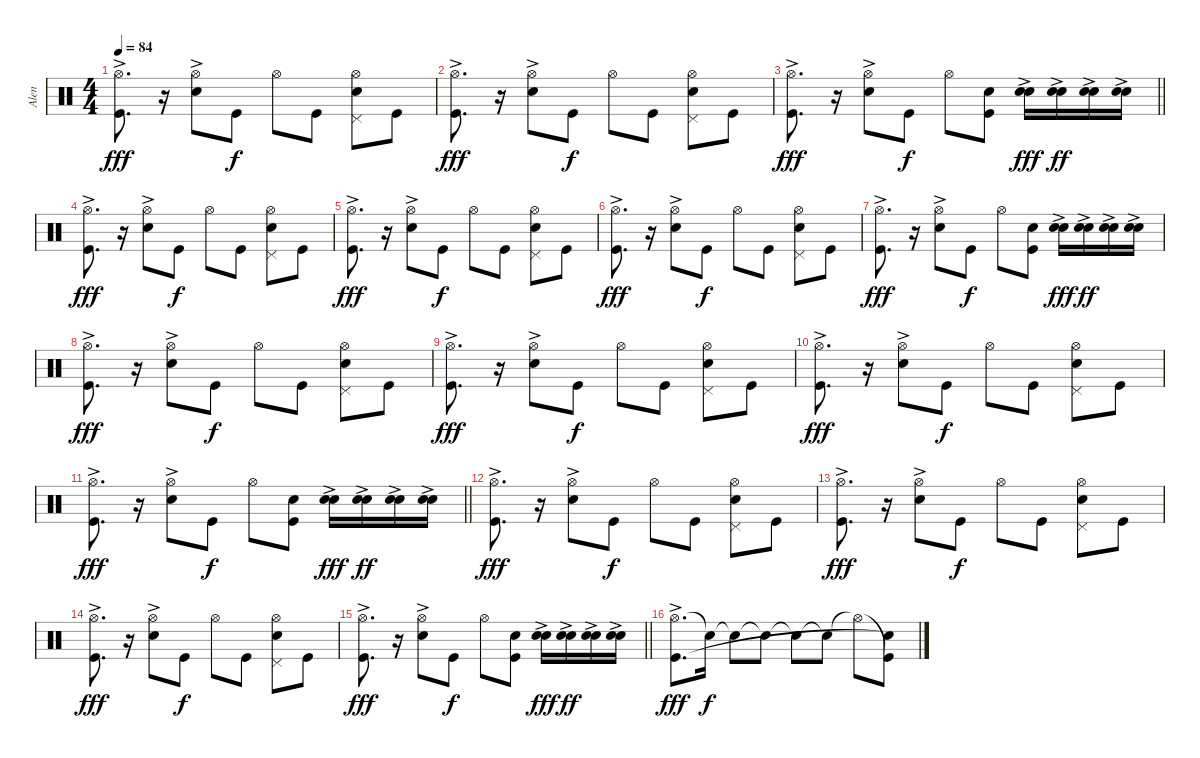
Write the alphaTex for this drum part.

\track ("Alen" "Alen") {instrument percussion}
\staff {score}
\articulation defaults
\ts (4 4)
\tempo 84
\clef neutral
\ks c
("Hi-Hat (open)"{ac} "Kick (hit)").8{d dy fff} r.16 ("Hi-Hat (open)" "Snare (hit) 2"{ac}).8 "Kick (hit)".8{dy f} "Hi-Hat (open)".8 "Kick (hit)".8 ("Pedal Hi-Hat (hit)" "Snare (hit) 2" "Hi-Hat (open)").8 "Kick (hit)".8 |
("Hi-Hat (open)"{ac} "Kick (hit)").8{d dy fff} r.16 ("Hi-Hat (open)" "Snare (hit) 2"{ac}).8 "Kick (hit)".8{dy f} "Hi-Hat (open)".8 "Kick (hit)".8 ("Pedal Hi-Hat (hit)" "Snare (hit) 2" "Hi-Hat (open)").8 "Kick (hit)".8 |
\barLineRight lightlight
("Hi-Hat (open)"{ac} "Kick (hit)").8{d dy fff} r.16 ("Hi-Hat (open)" "Snare (hit) 2"{ac}).8 "Kick (hit)".8{dy f} "Hi-Hat (open)".8 ("Electric Snare (hit)" "Kick (hit)").8 ("Snare (hit) 2"{ac} "Electric Snare (hit)"{ac}).16{dy fff} ("Snare (hit) 2"{ac} "Electric Snare (hit)").16{dy ff} ("Snare (hit) 2"{ac} "Electric Snare (hit)").16 ("Snare (hit) 2"{ac} "Electric Snare (hit)").16 |
("Hi-Hat (open)"{ac} "Kick (hit)").8{d dy fff} r.16 ("Hi-Hat (open)" "Snare (hit) 2"{ac}).8 "Kick (hit)".8{dy f} "Hi-Hat (open)".8 "Kick (hit)".8 ("Pedal Hi-Hat (hit)" "Snare (hit) 2" "Hi-Hat (open)").8 "Kick (hit)".8 |
("Hi-Hat (open)"{ac} "Kick (hit)").8{d dy fff} r.16 ("Hi-Hat (open)" "Snare (hit) 2"{ac}).8 "Kick (hit)".8{dy f} "Hi-Hat (open)".8 "Kick (hit)".8 ("Pedal Hi-Hat (hit)" "Snare (hit) 2" "Hi-Hat (open)").8 "Kick (hit)".8 |
("Hi-Hat (open)"{ac} "Kick (hit)").8{d dy fff} r.16 ("Hi-Hat (open)" "Snare (hit) 2"{ac}).8 "Kick (hit)".8{dy f} "Hi-Hat (open)".8 "Kick (hit)".8 ("Pedal Hi-Hat (hit)" "Snare (hit) 2" "Hi-Hat (open)").8 "Kick (hit)".8 |
("Hi-Hat (open)"{ac} "Kick (hit)").8{d dy fff} r.16 ("Hi-Hat (open)" "Snare (hit) 2"{ac}).8 "Kick (hit)".8{dy f} "Hi-Hat (open)".8 ("Electric Snare (hit)" "Kick (hit)").8 ("Snare (hit) 2"{ac} "Electric Snare (hit)"{ac}).16{dy fff} ("Snare (hit) 2"{ac} "Electric Snare (hit)").16{dy ff} ("Snare (hit) 2"{ac} "Electric Snare (hit)").16 ("Snare (hit) 2"{ac} "Electric Snare (hit)").16 |
("Hi-Hat (open)"{ac} "Kick (hit)").8{d dy fff} r.16 ("Hi-Hat (open)" "Snare (hit) 2"{ac}).8 "Kick (hit)".8{dy f} "Hi-Hat (open)".8 "Kick (hit)".8 ("Pedal Hi-Hat (hit)" "Snare (hit) 2" "Hi-Hat (open)").8 "Kick (hit)".8 |
("Hi-Hat (open)"{ac} "Kick (hit)").8{d dy fff} r.16 ("Hi-Hat (open)" "Snare (hit) 2"{ac}).8 "Kick (hit)".8{dy f} "Hi-Hat (open)".8 "Kick (hit)".8 ("Pedal Hi-Hat (hit)" "Snare (hit) 2" "Hi-Hat (open)").8 "Kick (hit)".8 |
("Hi-Hat (open)"{ac} "Kick (hit)").8{d dy fff} r.16 ("Hi-Hat (open)" "Snare (hit) 2"{ac}).8 "Kick (hit)".8{dy f} "Hi-Hat (open)".8 "Kick (hit)".8 ("Pedal Hi-Hat (hit)" "Snare (hit) 2" "Hi-Hat (open)").8 "Kick (hit)".8 |
\barLineRight lightlight
("Hi-Hat (open)"{ac} "Kick (hit)").8{d dy fff} r.16 ("Hi-Hat (open)" "Snare (hit) 2"{ac}).8 "Kick (hit)".8{dy f} "Hi-Hat (open)".8 ("Electric Snare (hit)" "Kick (hit)").8 ("Snare (hit) 2"{ac} "Electric Snare (hit)"{ac}).16{dy fff} ("Snare (hit) 2"{ac} "Electric Snare (hit)").16{dy ff} ("Snare (hit) 2"{ac} "Electric Snare (hit)").16 ("Snare (hit) 2"{ac} "Electric Snare (hit)").16 |
("Hi-Hat (open)"{ac} "Kick (hit)").8{d dy fff} r.16 ("Hi-Hat (open)" "Snare (hit) 2"{ac}).8 "Kick (hit)".8{dy f} "Hi-Hat (open)".8 "Kick (hit)".8 ("Pedal Hi-Hat (hit)" "Snare (hit) 2" "Hi-Hat (open)").8 "Kick (hit)".8 |
("Hi-Hat (open)"{ac} "Kick (hit)").8{d dy fff} r.16 ("Hi-Hat (open)" "Snare (hit) 2"{ac}).8 "Kick (hit)".8{dy f} "Hi-Hat (open)".8 "Kick (hit)".8 ("Pedal Hi-Hat (hit)" "Snare (hit) 2" "Hi-Hat (open)").8 "Kick (hit)".8 |
("Hi-Hat (open)"{ac} "Kick (hit)").8{d dy fff} r.16 ("Hi-Hat (open)" "Snare (hit) 2"{ac}).8 "Kick (hit)".8{dy f} "Hi-Hat (open)".8 "Kick (hit)".8 ("Pedal Hi-Hat (hit)" "Snare (hit) 2" "Hi-Hat (open)").8 "Kick (hit)".8 |
\barLineRight lightlight
("Hi-Hat (open)"{ac} "Kick (hit)").8{d dy fff} r.16 ("Hi-Hat (open)" "Snare (hit) 2"{ac}).8 "Kick (hit)".8{dy f} "Hi-Hat (open)".8 ("Electric Snare (hit)" "Kick (hit)").8 ("Snare (hit) 2"{ac} "Electric Snare (hit)"{ac}).16{dy fff} ("Snare (hit) 2"{ac} "Electric Snare (hit)").16{dy ff} ("Snare (hit) 2"{ac} "Electric Snare (hit)").16 ("Snare (hit) 2"{ac} "Electric Snare (hit)").16 |
("Hi-Hat (open)"{ac} "Kick (hit)").8{d dy fff} "Snare (hit)"{t}.16{dy f} "Snare (hit) 2"{t}.8 "Snare (hit)"{t}.8 "Snare (hit)"{t}.8 "Snare (hit)"{t}.8 "Hi-Hat (open)"{t}.8 ("Kick (hit)"{t} "Snare (hit)"{t}).8
